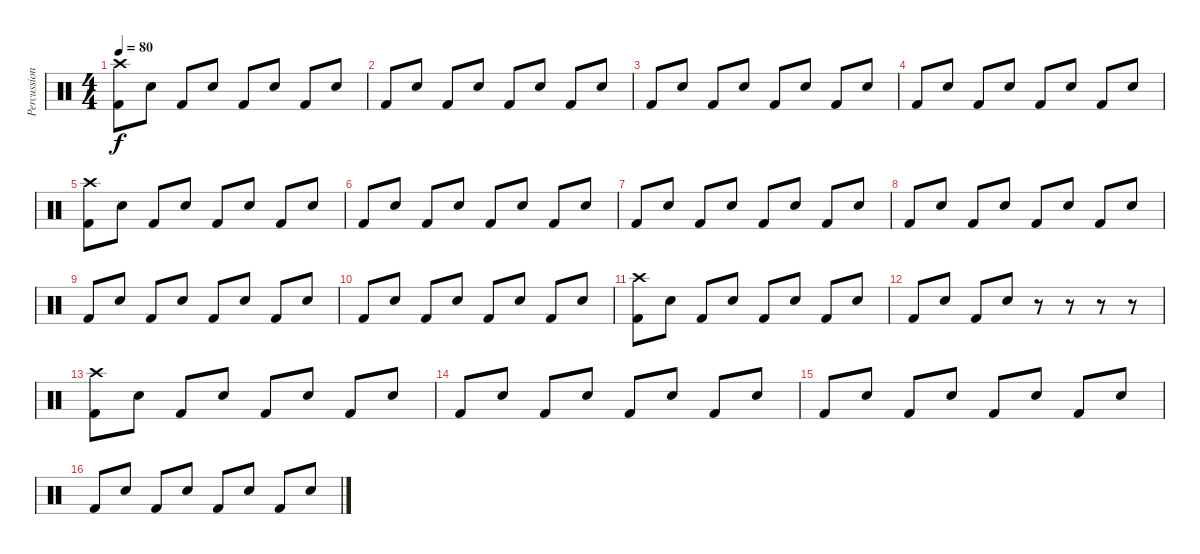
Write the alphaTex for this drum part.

\track ("Percussion" "Percussion") {instrument percussion}
\staff {score}
\articulation defaults
\ts (4 4)
\tempo 80
\clef neutral
\ks c
("Kick (hit) 2" "Crash high (hit)").8{dy f} "Electric Snare (hit)".8 "Kick (hit) 2".8 "Electric Snare (hit)".8 "Kick (hit) 2".8 "Electric Snare (hit)".8 "Kick (hit) 2".8 "Electric Snare (hit)".8 |
"Kick (hit) 2".8 "Electric Snare (hit)".8 "Kick (hit) 2".8 "Electric Snare (hit)".8 "Kick (hit) 2".8 "Electric Snare (hit)".8 "Kick (hit) 2".8 "Electric Snare (hit)".8 |
"Kick (hit) 2".8 "Electric Snare (hit)".8 "Kick (hit) 2".8 "Electric Snare (hit)".8 "Kick (hit) 2".8 "Electric Snare (hit)".8 "Kick (hit) 2".8 "Electric Snare (hit)".8 |
"Kick (hit) 2".8 "Electric Snare (hit)".8 "Kick (hit) 2".8 "Electric Snare (hit)".8 "Kick (hit) 2".8 "Electric Snare (hit)".8 "Kick (hit) 2".8 "Electric Snare (hit)".8 |
("Kick (hit) 2" "Crash high (hit)").8 "Electric Snare (hit)".8 "Kick (hit) 2".8 "Electric Snare (hit)".8 "Kick (hit) 2".8 "Electric Snare (hit)".8 "Kick (hit) 2".8 "Electric Snare (hit)".8 |
"Kick (hit) 2".8 "Electric Snare (hit)".8 "Kick (hit) 2".8 "Electric Snare (hit)".8 "Kick (hit) 2".8 "Electric Snare (hit)".8 "Kick (hit) 2".8 "Electric Snare (hit)".8 |
"Kick (hit) 2".8 "Electric Snare (hit)".8 "Kick (hit) 2".8 "Electric Snare (hit)".8 "Kick (hit) 2".8 "Electric Snare (hit)".8 "Kick (hit) 2".8 "Electric Snare (hit)".8 |
"Kick (hit) 2".8 "Electric Snare (hit)".8 "Kick (hit) 2".8 "Electric Snare (hit)".8 "Kick (hit) 2".8 "Electric Snare (hit)".8 "Kick (hit) 2".8 "Electric Snare (hit)".8 |
"Kick (hit) 2".8 "Electric Snare (hit)".8 "Kick (hit) 2".8 "Electric Snare (hit)".8 "Kick (hit) 2".8 "Electric Snare (hit)".8 "Kick (hit) 2".8 "Electric Snare (hit)".8 |
"Kick (hit) 2".8 "Electric Snare (hit)".8 "Kick (hit) 2".8 "Electric Snare (hit)".8 "Kick (hit) 2".8 "Electric Snare (hit)".8 "Kick (hit) 2".8 "Electric Snare (hit)".8 |
("Kick (hit) 2" "Crash high (hit)").8 "Electric Snare (hit)".8 "Kick (hit) 2".8 "Electric Snare (hit)".8 "Kick (hit) 2".8 "Electric Snare (hit)".8 "Kick (hit) 2".8 "Electric Snare (hit)".8 |
"Kick (hit) 2".8 "Electric Snare (hit)".8 "Kick (hit) 2".8 "Electric Snare (hit)".8 r.8 r.8 r.8 r.8 |
("Kick (hit) 2" "Crash high (hit)").8 "Electric Snare (hit)".8 "Kick (hit) 2".8 "Electric Snare (hit)".8 "Kick (hit) 2".8 "Electric Snare (hit)".8 "Kick (hit) 2".8 "Electric Snare (hit)".8 |
"Kick (hit) 2".8 "Electric Snare (hit)".8 "Kick (hit) 2".8 "Electric Snare (hit)".8 "Kick (hit) 2".8 "Electric Snare (hit)".8 "Kick (hit) 2".8 "Electric Snare (hit)".8 |
"Kick (hit) 2".8 "Electric Snare (hit)".8 "Kick (hit) 2".8 "Electric Snare (hit)".8 "Kick (hit) 2".8 "Electric Snare (hit)".8 "Kick (hit) 2".8 "Electric Snare (hit)".8 |
"Kick (hit) 2".8 "Electric Snare (hit)".8 "Kick (hit) 2".8 "Electric Snare (hit)".8 "Kick (hit) 2".8 "Electric Snare (hit)".8 "Kick (hit) 2".8 "Electric Snare (hit)".8
